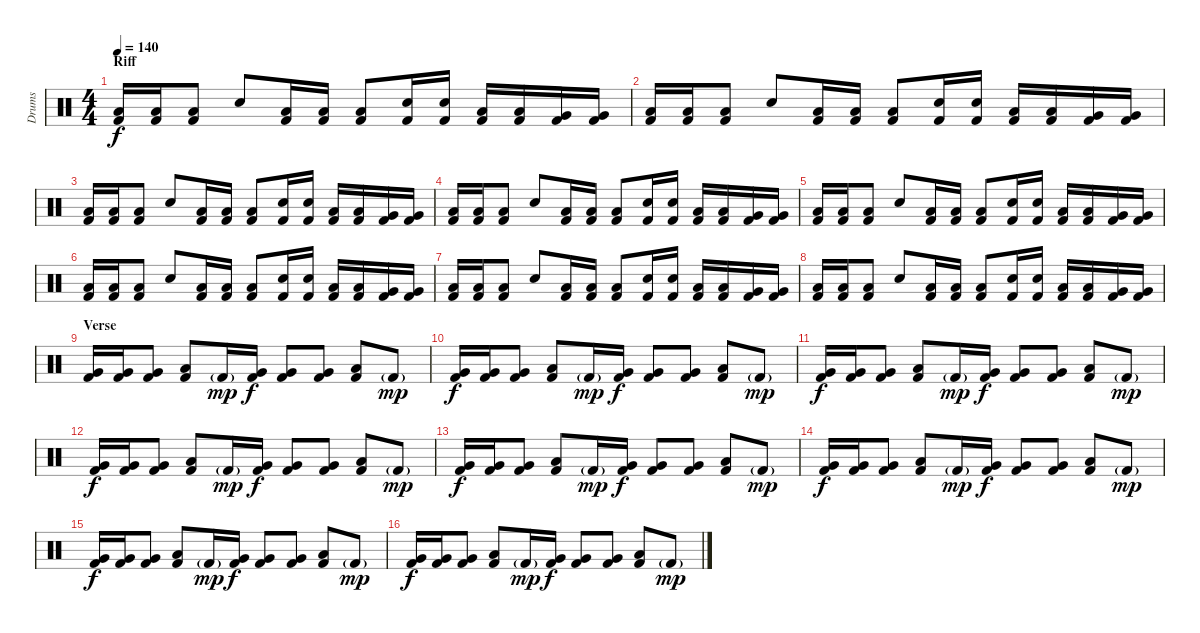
\track ("Drums" "Drums") {instrument percussion}
\staff {score}
\articulation defaults
\ts (4 4)
\section ("" "Riff")
\tempo 140
\clef neutral
\ks c
("Kick (hit) 2" "Low Tom (hit)").16{dy f} ("Kick (hit) 2" "Low Tom (hit)").16 ("Kick (hit) 2" "Low Tom (hit)").8 "Electric Snare (hit)".8 ("Kick (hit) 2" "Low Tom (hit)").16 ("Kick (hit) 2" "Low Tom (hit)").16 ("Kick (hit) 2" "Low Tom (hit)").8 ("Kick (hit) 2" "Electric Snare (hit)").16 ("Kick (hit) 2" "Electric Snare (hit)").16 ("Kick (hit) 2" "Low Tom (hit)").16 ("Kick (hit) 2" "Low Tom (hit)").16 ("Kick (hit) 2" "Very Low Tom (hit)").16 ("Kick (hit) 2" "Very Low Tom (hit)").16 |
("Kick (hit) 2" "Low Tom (hit)").16 ("Kick (hit) 2" "Low Tom (hit)").16 ("Kick (hit) 2" "Low Tom (hit)").8 "Electric Snare (hit)".8 ("Kick (hit) 2" "Low Tom (hit)").16 ("Kick (hit) 2" "Low Tom (hit)").16 ("Kick (hit) 2" "Low Tom (hit)").8 ("Kick (hit) 2" "Electric Snare (hit)").16 ("Kick (hit) 2" "Electric Snare (hit)").16 ("Kick (hit) 2" "Low Tom (hit)").16 ("Kick (hit) 2" "Low Tom (hit)").16 ("Kick (hit) 2" "Very Low Tom (hit)").16 ("Kick (hit) 2" "Very Low Tom (hit)").16 |
("Kick (hit) 2" "Low Tom (hit)").16 ("Kick (hit) 2" "Low Tom (hit)").16 ("Kick (hit) 2" "Low Tom (hit)").8 "Electric Snare (hit)".8 ("Kick (hit) 2" "Low Tom (hit)").16 ("Kick (hit) 2" "Low Tom (hit)").16 ("Kick (hit) 2" "Low Tom (hit)").8 ("Kick (hit) 2" "Electric Snare (hit)").16 ("Kick (hit) 2" "Electric Snare (hit)").16 ("Kick (hit) 2" "Low Tom (hit)").16 ("Kick (hit) 2" "Low Tom (hit)").16 ("Kick (hit) 2" "Very Low Tom (hit)").16 ("Kick (hit) 2" "Very Low Tom (hit)").16 |
("Kick (hit) 2" "Low Tom (hit)").16 ("Kick (hit) 2" "Low Tom (hit)").16 ("Kick (hit) 2" "Low Tom (hit)").8 "Electric Snare (hit)".8 ("Kick (hit) 2" "Low Tom (hit)").16 ("Kick (hit) 2" "Low Tom (hit)").16 ("Kick (hit) 2" "Low Tom (hit)").8 ("Kick (hit) 2" "Electric Snare (hit)").16 ("Kick (hit) 2" "Electric Snare (hit)").16 ("Kick (hit) 2" "Low Tom (hit)").16 ("Kick (hit) 2" "Low Tom (hit)").16 ("Kick (hit) 2" "Very Low Tom (hit)").16 ("Kick (hit) 2" "Very Low Tom (hit)").16 |
("Kick (hit) 2" "Low Tom (hit)").16 ("Kick (hit) 2" "Low Tom (hit)").16 ("Kick (hit) 2" "Low Tom (hit)").8 "Electric Snare (hit)".8 ("Kick (hit) 2" "Low Tom (hit)").16 ("Kick (hit) 2" "Low Tom (hit)").16 ("Kick (hit) 2" "Low Tom (hit)").8 ("Kick (hit) 2" "Electric Snare (hit)").16 ("Kick (hit) 2" "Electric Snare (hit)").16 ("Kick (hit) 2" "Low Tom (hit)").16 ("Kick (hit) 2" "Low Tom (hit)").16 ("Kick (hit) 2" "Very Low Tom (hit)").16 ("Kick (hit) 2" "Very Low Tom (hit)").16 |
("Kick (hit) 2" "Low Tom (hit)").16 ("Kick (hit) 2" "Low Tom (hit)").16 ("Kick (hit) 2" "Low Tom (hit)").8 "Electric Snare (hit)".8 ("Kick (hit) 2" "Low Tom (hit)").16 ("Kick (hit) 2" "Low Tom (hit)").16 ("Kick (hit) 2" "Low Tom (hit)").8 ("Kick (hit) 2" "Electric Snare (hit)").16 ("Kick (hit) 2" "Electric Snare (hit)").16 ("Kick (hit) 2" "Low Tom (hit)").16 ("Kick (hit) 2" "Low Tom (hit)").16 ("Kick (hit) 2" "Very Low Tom (hit)").16 ("Kick (hit) 2" "Very Low Tom (hit)").16 |
("Kick (hit) 2" "Low Tom (hit)").16 ("Kick (hit) 2" "Low Tom (hit)").16 ("Kick (hit) 2" "Low Tom (hit)").8 "Electric Snare (hit)".8 ("Kick (hit) 2" "Low Tom (hit)").16 ("Kick (hit) 2" "Low Tom (hit)").16 ("Kick (hit) 2" "Low Tom (hit)").8 ("Kick (hit) 2" "Electric Snare (hit)").16 ("Kick (hit) 2" "Electric Snare (hit)").16 ("Kick (hit) 2" "Low Tom (hit)").16 ("Kick (hit) 2" "Low Tom (hit)").16 ("Kick (hit) 2" "Very Low Tom (hit)").16 ("Kick (hit) 2" "Very Low Tom (hit)").16 |
("Kick (hit) 2" "Low Tom (hit)").16 ("Kick (hit) 2" "Low Tom (hit)").16 ("Kick (hit) 2" "Low Tom (hit)").8 "Electric Snare (hit)".8 ("Kick (hit) 2" "Low Tom (hit)").16 ("Kick (hit) 2" "Low Tom (hit)").16 ("Kick (hit) 2" "Low Tom (hit)").8 ("Kick (hit) 2" "Electric Snare (hit)").16 ("Kick (hit) 2" "Electric Snare (hit)").16 ("Kick (hit) 2" "Low Tom (hit)").16 ("Kick (hit) 2" "Low Tom (hit)").16 ("Kick (hit) 2" "Very Low Tom (hit)").16 ("Kick (hit) 2" "Very Low Tom (hit)").16 |
\section ("" "Verse")
("Kick (hit) 2" "Very Low Tom (hit)").16{volume 10} ("Kick (hit) 2" "Very Low Tom (hit)").16 ("Kick (hit) 2" "Very Low Tom (hit)").8 ("Kick (hit) 2" "Low Floor Tom (hit)").8 "Kick (hit) 2"{g}.16{dy mp} ("Kick (hit) 2" "Very Low Tom (hit)").16{dy f} ("Kick (hit) 2" "Very Low Tom (hit)").8 ("Kick (hit) 2" "Very Low Tom (hit)").8 ("Kick (hit) 2" "Low Floor Tom (hit)").8 "Kick (hit) 2"{g}.8{dy mp} |
("Kick (hit) 2" "Very Low Tom (hit)").16{dy f} ("Kick (hit) 2" "Very Low Tom (hit)").16 ("Kick (hit) 2" "Very Low Tom (hit)").8 ("Kick (hit) 2" "Low Floor Tom (hit)").8 "Kick (hit) 2"{g}.16{dy mp} ("Kick (hit) 2" "Very Low Tom (hit)").16{dy f} ("Kick (hit) 2" "Very Low Tom (hit)").8 ("Kick (hit) 2" "Very Low Tom (hit)").8 ("Kick (hit) 2" "Low Floor Tom (hit)").8 "Kick (hit) 2"{g}.8{dy mp} |
("Kick (hit) 2" "Very Low Tom (hit)").16{dy f} ("Kick (hit) 2" "Very Low Tom (hit)").16 ("Kick (hit) 2" "Very Low Tom (hit)").8 ("Kick (hit) 2" "Low Floor Tom (hit)").8 "Kick (hit) 2"{g}.16{dy mp} ("Kick (hit) 2" "Very Low Tom (hit)").16{dy f} ("Kick (hit) 2" "Very Low Tom (hit)").8 ("Kick (hit) 2" "Very Low Tom (hit)").8 ("Kick (hit) 2" "Low Floor Tom (hit)").8 "Kick (hit) 2"{g}.8{dy mp} |
("Kick (hit) 2" "Very Low Tom (hit)").16{dy f} ("Kick (hit) 2" "Very Low Tom (hit)").16 ("Kick (hit) 2" "Very Low Tom (hit)").8 ("Kick (hit) 2" "Low Floor Tom (hit)").8 "Kick (hit) 2"{g}.16{dy mp} ("Kick (hit) 2" "Very Low Tom (hit)").16{dy f} ("Kick (hit) 2" "Very Low Tom (hit)").8 ("Kick (hit) 2" "Very Low Tom (hit)").8 ("Kick (hit) 2" "Low Floor Tom (hit)").8 "Kick (hit) 2"{g}.8{dy mp} |
("Kick (hit) 2" "Very Low Tom (hit)").16{dy f} ("Kick (hit) 2" "Very Low Tom (hit)").16 ("Kick (hit) 2" "Very Low Tom (hit)").8 ("Kick (hit) 2" "Low Floor Tom (hit)").8 "Kick (hit) 2"{g}.16{dy mp} ("Kick (hit) 2" "Very Low Tom (hit)").16{dy f} ("Kick (hit) 2" "Very Low Tom (hit)").8 ("Kick (hit) 2" "Very Low Tom (hit)").8 ("Kick (hit) 2" "Low Floor Tom (hit)").8 "Kick (hit) 2"{g}.8{dy mp} |
("Kick (hit) 2" "Very Low Tom (hit)").16{dy f} ("Kick (hit) 2" "Very Low Tom (hit)").16 ("Kick (hit) 2" "Very Low Tom (hit)").8 ("Kick (hit) 2" "Low Floor Tom (hit)").8 "Kick (hit) 2"{g}.16{dy mp} ("Kick (hit) 2" "Very Low Tom (hit)").16{dy f} ("Kick (hit) 2" "Very Low Tom (hit)").8 ("Kick (hit) 2" "Very Low Tom (hit)").8 ("Kick (hit) 2" "Low Floor Tom (hit)").8 "Kick (hit) 2"{g}.8{dy mp} |
("Kick (hit) 2" "Very Low Tom (hit)").16{dy f} ("Kick (hit) 2" "Very Low Tom (hit)").16 ("Kick (hit) 2" "Very Low Tom (hit)").8 ("Kick (hit) 2" "Low Floor Tom (hit)").8 "Kick (hit) 2"{g}.16{dy mp} ("Kick (hit) 2" "Very Low Tom (hit)").16{dy f} ("Kick (hit) 2" "Very Low Tom (hit)").8 ("Kick (hit) 2" "Very Low Tom (hit)").8 ("Kick (hit) 2" "Low Floor Tom (hit)").8 "Kick (hit) 2"{g}.8{dy mp} |
("Kick (hit) 2" "Very Low Tom (hit)").16{dy f} ("Kick (hit) 2" "Very Low Tom (hit)").16 ("Kick (hit) 2" "Very Low Tom (hit)").8 ("Kick (hit) 2" "Low Floor Tom (hit)").8 "Kick (hit) 2"{g}.16{dy mp} ("Kick (hit) 2" "Very Low Tom (hit)").16{dy f} ("Kick (hit) 2" "Very Low Tom (hit)").8 ("Kick (hit) 2" "Very Low Tom (hit)").8 ("Kick (hit) 2" "Low Floor Tom (hit)").8 "Kick (hit) 2"{g}.8{dy mp}
